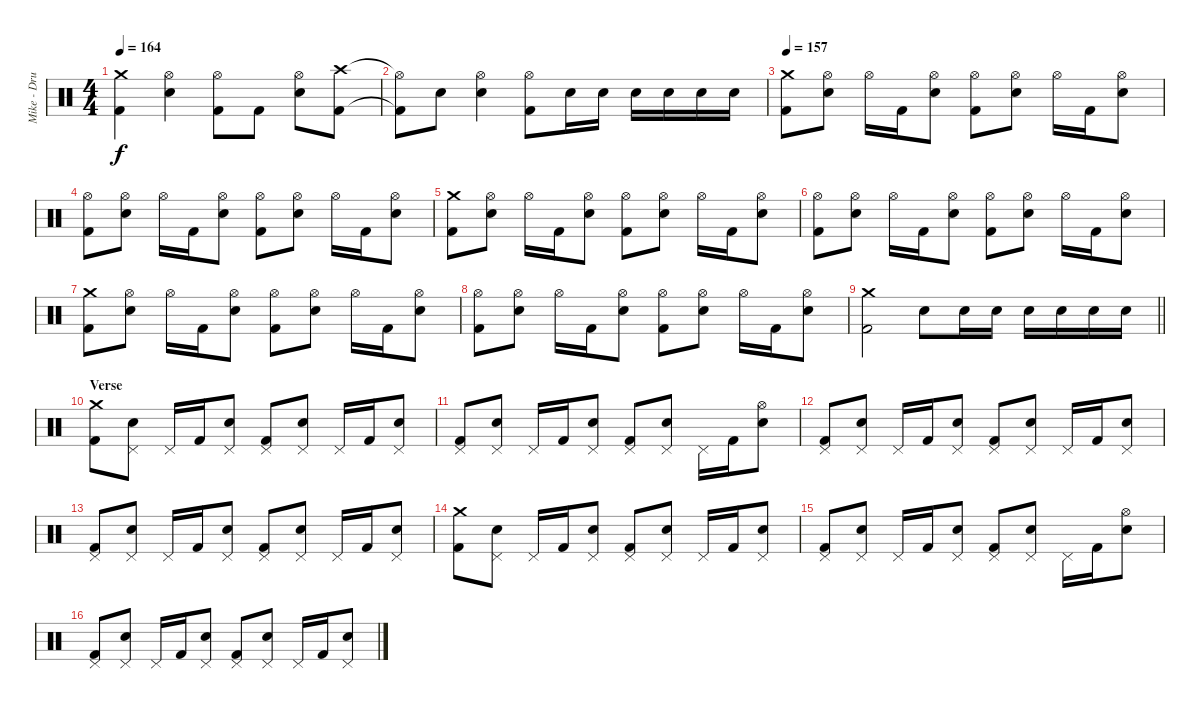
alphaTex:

\track ("Mike - Drums" "Mike - Dru") {instrument percussion}
\staff {score}
\articulation defaults
\ts (4 4)
\tempo 164
\clef neutral
\ks c
("Crash medium (hit)" "Kick (hit) 2").4{dy f} ("Hi-Hat (open)" "Electric Snare (hit)").4 ("Hi-Hat (open)" "Kick (hit) 2").8 "Kick (hit) 2".8 ("Hi-Hat (open)" "Electric Snare (hit)").8 ("Crash high (hit)" "Kick (hit) 2").8 |
("Hi-Hat (open)"{t} "Kick (hit) 2"{t}).8 "Electric Snare (hit)".8 ("Hi-Hat (open)" "Electric Snare (hit)").4 ("Hi-Hat (open)" "Kick (hit) 2").8 "Electric Snare (hit)".16 "Electric Snare (hit)".16 "Electric Snare (hit)".16 "Electric Snare (hit)".16 "Electric Snare (hit)".16 "Electric Snare (hit)".16 |
\tempo 157
("Crash medium (hit)" "Kick (hit) 2").8 ("Hi-Hat (open)" "Electric Snare (hit)").8 "Hi-Hat (open)".16 "Kick (hit) 2".16 ("Hi-Hat (open)" "Electric Snare (hit)").8 ("Hi-Hat (open)" "Kick (hit) 2").8 ("Hi-Hat (open)" "Electric Snare (hit)").8 "Hi-Hat (open)".16 "Kick (hit) 2".16 ("Hi-Hat (open)" "Electric Snare (hit)").8 |
("Hi-Hat (open)" "Kick (hit) 2").8 ("Hi-Hat (open)" "Electric Snare (hit)").8 "Hi-Hat (open)".16 "Kick (hit) 2".16 ("Hi-Hat (open)" "Electric Snare (hit)").8 ("Hi-Hat (open)" "Kick (hit) 2").8 ("Hi-Hat (open)" "Electric Snare (hit)").8 "Hi-Hat (open)".16 "Kick (hit) 2".16 ("Hi-Hat (open)" "Electric Snare (hit)").8 |
("Crash medium (hit)" "Kick (hit) 2").8 ("Hi-Hat (open)" "Electric Snare (hit)").8 "Hi-Hat (open)".16 "Kick (hit) 2".16 ("Hi-Hat (open)" "Electric Snare (hit)").8 ("Hi-Hat (open)" "Kick (hit) 2").8 ("Hi-Hat (open)" "Electric Snare (hit)").8 "Hi-Hat (open)".16 "Kick (hit) 2".16 ("Hi-Hat (open)" "Electric Snare (hit)").8 |
("Hi-Hat (open)" "Kick (hit) 2").8 ("Hi-Hat (open)" "Electric Snare (hit)").8 "Hi-Hat (open)".16 "Kick (hit) 2".16 ("Hi-Hat (open)" "Electric Snare (hit)").8 ("Hi-Hat (open)" "Kick (hit) 2").8 ("Hi-Hat (open)" "Electric Snare (hit)").8 "Hi-Hat (open)".16 "Kick (hit) 2".16 ("Hi-Hat (open)" "Electric Snare (hit)").8 |
("Crash medium (hit)" "Kick (hit) 2").8 ("Hi-Hat (open)" "Electric Snare (hit)").8 "Hi-Hat (open)".16 "Kick (hit) 2".16 ("Hi-Hat (open)" "Electric Snare (hit)").8 ("Hi-Hat (open)" "Kick (hit) 2").8 ("Hi-Hat (open)" "Electric Snare (hit)").8 "Hi-Hat (open)".16 "Kick (hit) 2".16 ("Hi-Hat (open)" "Electric Snare (hit)").8 |
("Hi-Hat (open)" "Kick (hit) 2").8 ("Hi-Hat (open)" "Electric Snare (hit)").8 "Hi-Hat (open)".16 "Kick (hit) 2".16 ("Hi-Hat (open)" "Electric Snare (hit)").8 ("Hi-Hat (open)" "Kick (hit) 2").8 ("Hi-Hat (open)" "Electric Snare (hit)").8 "Hi-Hat (open)".16 "Kick (hit) 2".16 ("Hi-Hat (open)" "Electric Snare (hit)").8 |
\barLineRight lightlight
("Crash medium (hit)" "Kick (hit) 2").2 "Electric Snare (hit)".8 "Electric Snare (hit)".16 "Electric Snare (hit)".16 "Electric Snare (hit)".16 "Electric Snare (hit)".16 "Electric Snare (hit)".16 "Electric Snare (hit)".16 |
\section ("" "Verse")
("Crash medium (hit)" "Kick (hit) 2").8 ("Pedal Hi-Hat (hit)" "Electric Snare (hit)").8 "Pedal Hi-Hat (hit)".16 "Kick (hit) 2".16 ("Pedal Hi-Hat (hit)" "Electric Snare (hit)").8 ("Pedal Hi-Hat (hit)" "Kick (hit) 2").8 ("Pedal Hi-Hat (hit)" "Electric Snare (hit)").8 "Pedal Hi-Hat (hit)".16 "Kick (hit) 2".16 ("Pedal Hi-Hat (hit)" "Electric Snare (hit)").8 |
("Pedal Hi-Hat (hit)" "Kick (hit) 2").8 ("Pedal Hi-Hat (hit)" "Electric Snare (hit)").8 "Pedal Hi-Hat (hit)".16 "Kick (hit) 2".16 ("Pedal Hi-Hat (hit)" "Electric Snare (hit)").8 ("Pedal Hi-Hat (hit)" "Kick (hit) 2").8 ("Pedal Hi-Hat (hit)" "Electric Snare (hit)").8 "Pedal Hi-Hat (hit)".16 "Kick (hit) 2".16 ("Hi-Hat (open)" "Electric Snare (hit)").8 |
("Pedal Hi-Hat (hit)" "Kick (hit) 2").8 ("Pedal Hi-Hat (hit)" "Electric Snare (hit)").8 "Pedal Hi-Hat (hit)".16 "Kick (hit) 2".16 ("Pedal Hi-Hat (hit)" "Electric Snare (hit)").8 ("Pedal Hi-Hat (hit)" "Kick (hit) 2").8 ("Pedal Hi-Hat (hit)" "Electric Snare (hit)").8 "Pedal Hi-Hat (hit)".16 "Kick (hit) 2".16 ("Pedal Hi-Hat (hit)" "Electric Snare (hit)").8 |
("Pedal Hi-Hat (hit)" "Kick (hit) 2").8 ("Pedal Hi-Hat (hit)" "Electric Snare (hit)").8 "Pedal Hi-Hat (hit)".16 "Kick (hit) 2".16 ("Pedal Hi-Hat (hit)" "Electric Snare (hit)").8 ("Pedal Hi-Hat (hit)" "Kick (hit) 2").8 ("Pedal Hi-Hat (hit)" "Electric Snare (hit)").8 "Pedal Hi-Hat (hit)".16 "Kick (hit) 2".16 ("Pedal Hi-Hat (hit)" "Electric Snare (hit)").8 |
("Crash medium (hit)" "Kick (hit) 2").8 ("Pedal Hi-Hat (hit)" "Electric Snare (hit)").8 "Pedal Hi-Hat (hit)".16 "Kick (hit) 2".16 ("Pedal Hi-Hat (hit)" "Electric Snare (hit)").8 ("Pedal Hi-Hat (hit)" "Kick (hit) 2").8 ("Pedal Hi-Hat (hit)" "Electric Snare (hit)").8 "Pedal Hi-Hat (hit)".16 "Kick (hit) 2".16 ("Pedal Hi-Hat (hit)" "Electric Snare (hit)").8 |
("Pedal Hi-Hat (hit)" "Kick (hit) 2").8 ("Pedal Hi-Hat (hit)" "Electric Snare (hit)").8 "Pedal Hi-Hat (hit)".16 "Kick (hit) 2".16 ("Pedal Hi-Hat (hit)" "Electric Snare (hit)").8 ("Pedal Hi-Hat (hit)" "Kick (hit) 2").8 ("Pedal Hi-Hat (hit)" "Electric Snare (hit)").8 "Pedal Hi-Hat (hit)".16 "Kick (hit) 2".16 ("Hi-Hat (open)" "Electric Snare (hit)").8 |
("Pedal Hi-Hat (hit)" "Kick (hit) 2").8 ("Pedal Hi-Hat (hit)" "Electric Snare (hit)").8 "Pedal Hi-Hat (hit)".16 "Kick (hit) 2".16 ("Pedal Hi-Hat (hit)" "Electric Snare (hit)").8 ("Pedal Hi-Hat (hit)" "Kick (hit) 2").8 ("Pedal Hi-Hat (hit)" "Electric Snare (hit)").8 "Pedal Hi-Hat (hit)".16 "Kick (hit) 2".16 ("Pedal Hi-Hat (hit)" "Electric Snare (hit)").8
